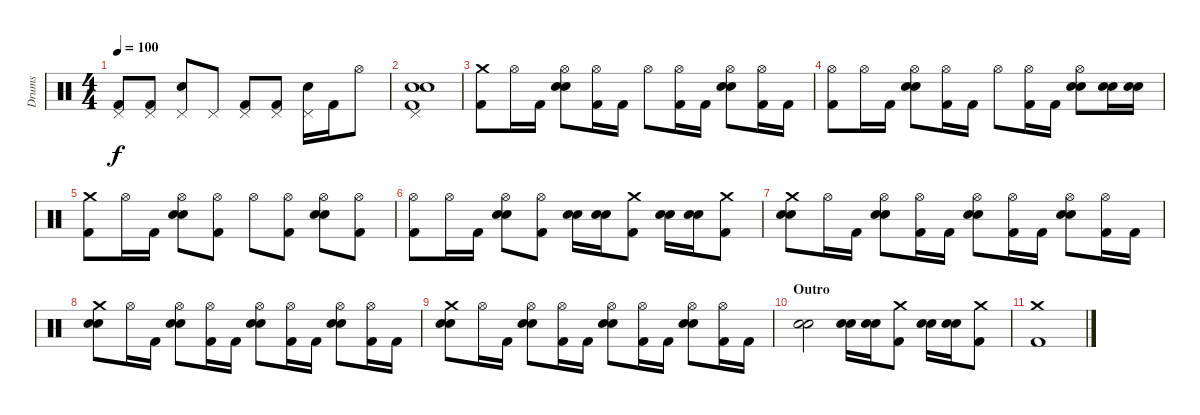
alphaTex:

\track ("Drums" "Drums") {instrument percussion}
\staff {score}
\articulation defaults
\ts (4 4)
\tempo 100
\clef neutral
\ks c
("Pedal Hi-Hat (hit)" "Kick (hit) 2").8{dy f} ("Pedal Hi-Hat (hit)" "Kick (hit) 2").8 ("Pedal Hi-Hat (hit)" "Electric Snare (hit)").8 "Pedal Hi-Hat (hit)".8 ("Pedal Hi-Hat (hit)" "Kick (hit) 2").8 ("Pedal Hi-Hat (hit)" "Kick (hit) 2").8 ("Pedal Hi-Hat (hit)" "Electric Snare (hit)").16 "Kick (hit) 2".16 "Hi-Hat (open)".8 |
("Pedal Hi-Hat (hit)" "Electric Snare (hit)" "Snare (hit) 2" "Kick (hit) 2").1 |
("Crash medium (hit)" "Kick (hit) 2").8 "Hi-Hat (open)".16 "Kick (hit) 2".16 ("Hi-Hat (open)" "Electric Snare (hit)" "Snare (hit) 2").8 ("Hi-Hat (open)" "Kick (hit) 2").16 "Kick (hit) 2".16 "Hi-Hat (open)".8 ("Hi-Hat (open)" "Kick (hit) 2").16 "Kick (hit) 2".16 ("Hi-Hat (open)" "Electric Snare (hit)" "Snare (hit) 2").8 ("Hi-Hat (open)" "Kick (hit) 2").16 "Kick (hit) 2".16 |
("Hi-Hat (open)" "Kick (hit) 2").8 "Hi-Hat (open)".16 "Kick (hit) 2".16 ("Hi-Hat (open)" "Electric Snare (hit)" "Snare (hit) 2").8 ("Hi-Hat (open)" "Kick (hit) 2").16 "Kick (hit) 2".16 "Hi-Hat (open)".8 ("Hi-Hat (open)" "Kick (hit) 2").16 "Kick (hit) 2".16 ("Hi-Hat (open)" "Electric Snare (hit)" "Snare (hit) 2").8 ("Electric Snare (hit)" "Snare (hit) 2").16 ("Electric Snare (hit)" "Snare (hit) 2").16 |
("Crash medium (hit)" "Kick (hit) 2").8 "Hi-Hat (open)".16 "Kick (hit) 2".16 ("Hi-Hat (open)" "Electric Snare (hit)" "Snare (hit) 2").8 ("Hi-Hat (open)" "Kick (hit) 2").8 "Hi-Hat (open)".8 ("Hi-Hat (open)" "Kick (hit) 2").8 ("Hi-Hat (open)" "Electric Snare (hit)" "Snare (hit) 2").8 ("Hi-Hat (open)" "Kick (hit) 2").8 |
("Hi-Hat (open)" "Kick (hit) 2").8 "Hi-Hat (open)".16 "Kick (hit) 2".16 ("Hi-Hat (open)" "Electric Snare (hit)" "Snare (hit) 2").8 ("Hi-Hat (open)" "Kick (hit) 2").8 ("Electric Snare (hit)" "Snare (hit) 2").16 ("Electric Snare (hit)" "Snare (hit) 2").16 ("Crash medium (hit)" "Kick (hit) 2").8 ("Electric Snare (hit)" "Snare (hit) 2").16 ("Electric Snare (hit)" "Snare (hit) 2").16 ("Crash medium (hit)" "Kick (hit) 2").8 |
("Crash medium (hit)" "Electric Snare (hit)" "Snare (hit) 2").8 "Hi-Hat (open)".16 "Kick (hit) 2".16 ("Hi-Hat (open)" "Electric Snare (hit)" "Snare (hit) 2").8 ("Hi-Hat (open)" "Kick (hit) 2").16 "Kick (hit) 2".16 ("Hi-Hat (open)" "Electric Snare (hit)" "Snare (hit) 2").8 ("Hi-Hat (open)" "Kick (hit) 2").16 "Kick (hit) 2".16 ("Hi-Hat (open)" "Electric Snare (hit)" "Snare (hit) 2").8 ("Hi-Hat (open)" "Kick (hit) 2").16 "Kick (hit) 2".16 |
("Crash medium (hit)" "Electric Snare (hit)" "Snare (hit) 2").8 "Hi-Hat (open)".16 "Kick (hit) 2".16 ("Hi-Hat (open)" "Electric Snare (hit)" "Snare (hit) 2").8 ("Hi-Hat (open)" "Kick (hit) 2").16 "Kick (hit) 2".16 ("Hi-Hat (open)" "Electric Snare (hit)" "Snare (hit) 2").8 ("Hi-Hat (open)" "Kick (hit) 2").16 "Kick (hit) 2".16 ("Hi-Hat (open)" "Electric Snare (hit)" "Snare (hit) 2").8 ("Hi-Hat (open)" "Kick (hit) 2").16 "Kick (hit) 2".16 |
("Crash medium (hit)" "Electric Snare (hit)" "Snare (hit) 2").8 "Hi-Hat (open)".16 "Kick (hit) 2".16 ("Hi-Hat (open)" "Electric Snare (hit)" "Snare (hit) 2").8 ("Hi-Hat (open)" "Kick (hit) 2").16 "Kick (hit) 2".16 ("Hi-Hat (open)" "Electric Snare (hit)" "Snare (hit) 2").8 ("Hi-Hat (open)" "Kick (hit) 2").16 "Kick (hit) 2".16 ("Hi-Hat (open)" "Electric Snare (hit)" "Snare (hit) 2").8 ("Hi-Hat (open)" "Kick (hit) 2").16 "Kick (hit) 2".16 |
\section ("" "Outro")
("Electric Snare (hit)" "Snare (hit) 2").2 ("Electric Snare (hit)" "Snare (hit) 2").16 ("Electric Snare (hit)" "Snare (hit) 2").16 ("Crash medium (hit)" "Kick (hit) 2").8 ("Electric Snare (hit)" "Snare (hit) 2").16 ("Electric Snare (hit)" "Snare (hit) 2").16 ("Crash medium (hit)" "Kick (hit) 2").8 |
("Crash medium (hit)" "Kick (hit) 2").1
